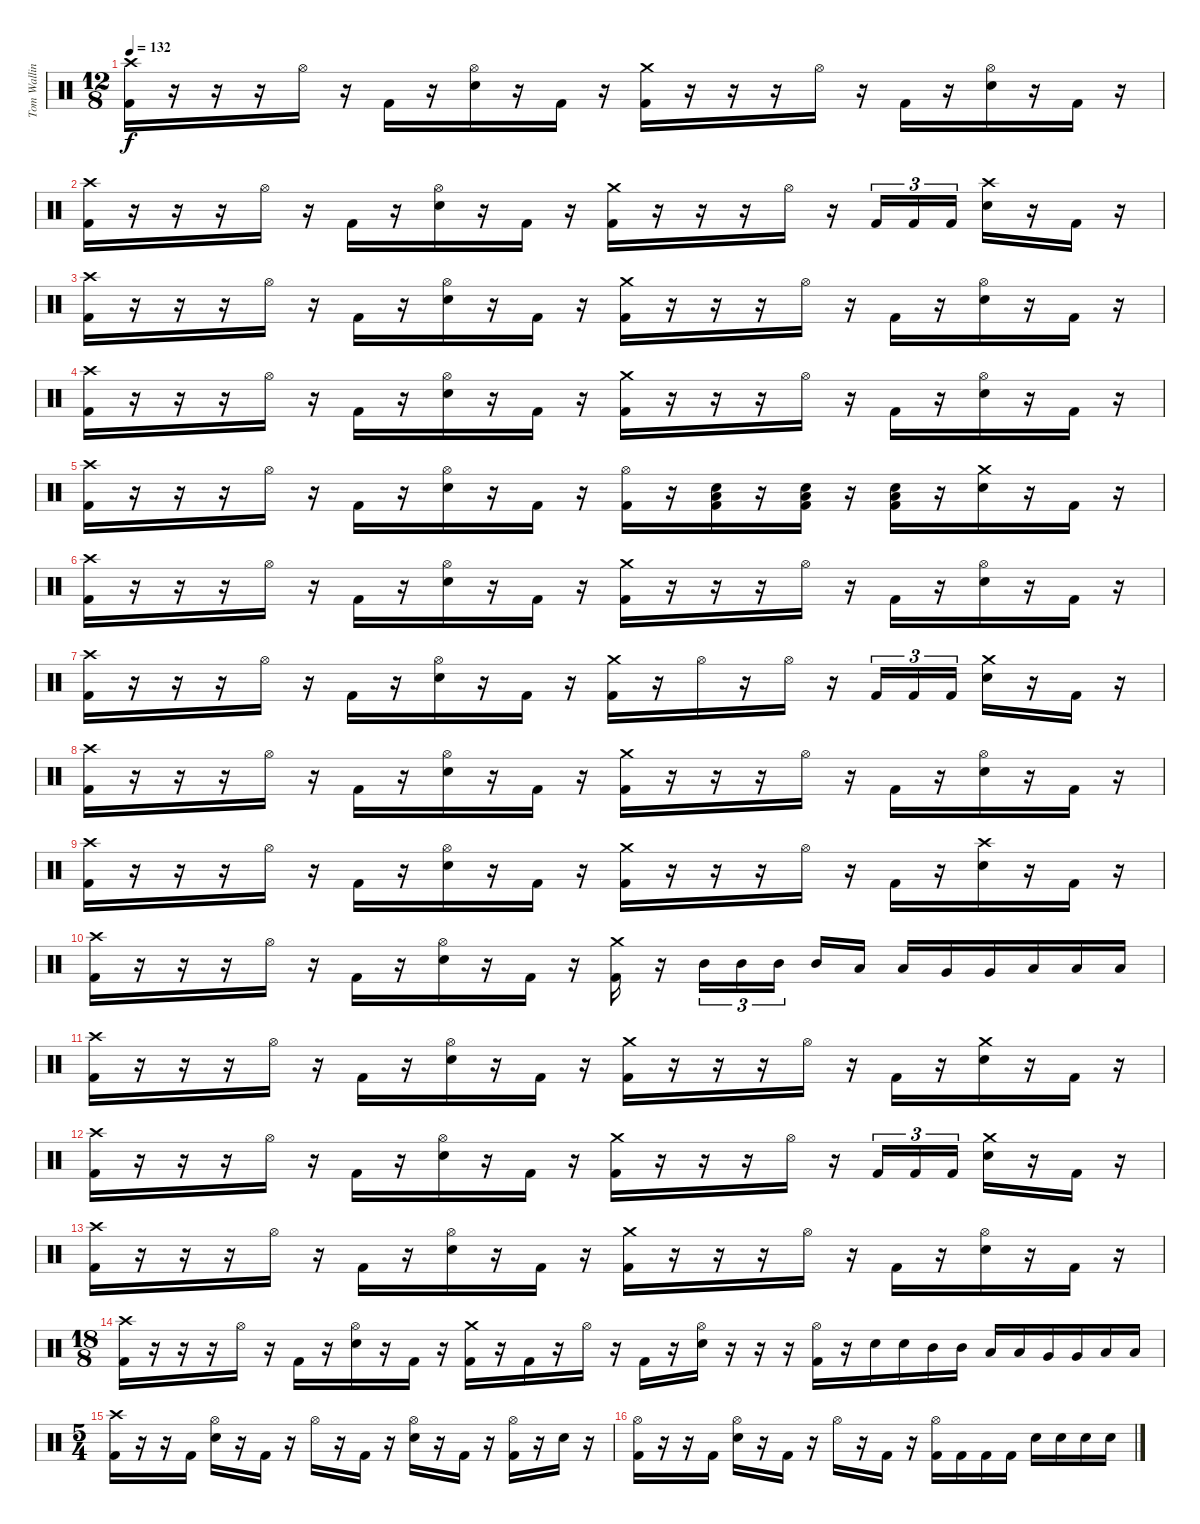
\track ("Tom Walling [Drums]" "Tom Wallin") {instrument percussion}
\staff {score}
\articulation defaults
\ts (12 8)
\tempo 132
\clef neutral
\ks c
("Crash high (hit)" "Kick (hit) 2").16{dy f} r.16 r.16 r.16 "Hi-Hat (open)".16 r.16 "Kick (hit) 2".16 r.16 ("Hi-Hat (open)" "Electric Snare (hit)").16 r.16 "Kick (hit) 2".16 r.16 ("Crash medium (hit)" "Kick (hit) 2").16 r.16 r.16 r.16 "Hi-Hat (open)".16 r.16 "Kick (hit) 2".16 r.16 ("Hi-Hat (open)" "Electric Snare (hit)").16 r.16 "Kick (hit) 2".16 r.16 |
("Crash high (hit)" "Kick (hit) 2").16 r.16 r.16 r.16 "Hi-Hat (open)".16 r.16 "Kick (hit) 2".16 r.16 ("Hi-Hat (open)" "Electric Snare (hit)").16 r.16 "Kick (hit) 2".16 r.16 ("Crash medium (hit)" "Kick (hit) 2").16 r.16 r.16 r.16 "Hi-Hat (open)".16 r.16 "Kick (hit) 2".16{tu (3 2)} "Kick (hit) 2".16{tu (3 2)} "Kick (hit) 2".16{tu (3 2)} ("Crash high (hit)" "Electric Snare (hit)").16 r.16 "Kick (hit) 2".16 r.16 |
("Crash high (hit)" "Kick (hit) 2").16 r.16 r.16 r.16 "Hi-Hat (open)".16 r.16 "Kick (hit) 2".16 r.16 ("Hi-Hat (open)" "Electric Snare (hit)").16 r.16 "Kick (hit) 2".16 r.16 ("Crash medium (hit)" "Kick (hit) 2").16 r.16 r.16 r.16 "Hi-Hat (open)".16 r.16 "Kick (hit) 2".16 r.16 ("Hi-Hat (open)" "Electric Snare (hit)").16 r.16 "Kick (hit) 2".16 r.16 |
("Crash high (hit)" "Kick (hit) 2").16 r.16 r.16 r.16 "Hi-Hat (open)".16 r.16 "Kick (hit) 2".16 r.16 ("Hi-Hat (open)" "Electric Snare (hit)").16 r.16 "Kick (hit) 2".16 r.16 ("Crash medium (hit)" "Kick (hit) 2").16 r.16 r.16 r.16 "Hi-Hat (open)".16 r.16 "Kick (hit) 2".16 r.16 ("Hi-Hat (open)" "Electric Snare (hit)").16 r.16 "Kick (hit) 2".16 r.16 |
("Crash high (hit)" "Kick (hit) 2").16 r.16 r.16 r.16 "Hi-Hat (open)".16 r.16 "Kick (hit) 2".16 r.16 ("Hi-Hat (open)" "Electric Snare (hit)").16 r.16 "Kick (hit) 2".16 r.16 ("Hi-Hat (open)" "Kick (hit) 2").16 r.16 ("Electric Snare (hit)" "Low Tom (hit)" "Kick (hit) 2").16 r.16 ("Electric Snare (hit)" "Low Tom (hit)" "Kick (hit) 2").16 r.16 ("Electric Snare (hit)" "Low Tom (hit)" "Kick (hit) 2").16 r.16 ("Crash medium (hit)" "Electric Snare (hit)").16 r.16 "Kick (hit) 2".16 r.16 |
("Crash high (hit)" "Kick (hit) 2").16 r.16 r.16 r.16 "Hi-Hat (open)".16 r.16 "Kick (hit) 2".16 r.16 ("Hi-Hat (open)" "Electric Snare (hit)").16 r.16 "Kick (hit) 2".16 r.16 ("Crash medium (hit)" "Kick (hit) 2").16 r.16 r.16 r.16 "Hi-Hat (open)".16 r.16 "Kick (hit) 2".16 r.16 ("Hi-Hat (open)" "Electric Snare (hit)").16 r.16 "Kick (hit) 2".16 r.16 |
("Crash high (hit)" "Kick (hit) 2").16 r.16 r.16 r.16 "Hi-Hat (open)".16 r.16 "Kick (hit) 2".16 r.16 ("Hi-Hat (open)" "Electric Snare (hit)").16 r.16 "Kick (hit) 2".16 r.16 ("Crash medium (hit)" "Kick (hit) 2").16 r.16 "Hi-Hat (open)".16 r.16 "Hi-Hat (open)".16 r.16 "Kick (hit) 2".16{tu (3 2)} "Kick (hit) 2".16{tu (3 2)} "Kick (hit) 2".16{tu (3 2)} ("Crash medium (hit)" "Electric Snare (hit)").16 r.16 "Kick (hit) 2".16 r.16 |
("Crash high (hit)" "Kick (hit) 2").16 r.16 r.16 r.16 "Hi-Hat (open)".16 r.16 "Kick (hit) 2".16 r.16 ("Hi-Hat (open)" "Electric Snare (hit)").16 r.16 "Kick (hit) 2".16 r.16 ("Crash medium (hit)" "Kick (hit) 2").16 r.16 r.16 r.16 "Hi-Hat (open)".16 r.16 "Kick (hit) 2".16 r.16 ("Hi-Hat (open)" "Electric Snare (hit)").16 r.16 "Kick (hit) 2".16 r.16 |
("Crash high (hit)" "Kick (hit) 2").16 r.16 r.16 r.16 "Hi-Hat (open)".16 r.16 "Kick (hit) 2".16 r.16 ("Hi-Hat (open)" "Electric Snare (hit)").16 r.16 "Kick (hit) 2".16 r.16 ("Crash medium (hit)" "Kick (hit) 2").16 r.16 r.16 r.16 "Hi-Hat (open)".16 r.16 "Kick (hit) 2".16 r.16 ("Crash high (hit)" "Electric Snare (hit)").16 r.16 "Kick (hit) 2".16 r.16 |
("Crash high (hit)" "Kick (hit) 2").16 r.16 r.16 r.16 "Hi-Hat (open)".16 r.16 "Kick (hit) 2".16 r.16 ("Hi-Hat (open)" "Electric Snare (hit)").16 r.16 "Kick (hit) 2".16 r.16 ("Crash medium (hit)" "Kick (hit) 2").16 r.16 "Mid Tom (hit)".16{tu (3 2)} "Mid Tom (hit)".16{tu (3 2)} "Mid Tom (hit)".16{tu (3 2)} "Mid Tom (hit)".16 "Low Tom (hit)".16 "Low Tom (hit)".16 "Very Low Tom (hit)".16 "Very Low Tom (hit)".16 "Low Floor Tom (hit)".16 "Low Floor Tom (hit)".16 "Low Floor Tom (hit)".16 |
("Crash high (hit)" "Kick (hit) 2").16 r.16 r.16 r.16 "Hi-Hat (open)".16 r.16 "Kick (hit) 2".16 r.16 ("Hi-Hat (open)" "Electric Snare (hit)").16 r.16 "Kick (hit) 2".16 r.16 ("Crash medium (hit)" "Kick (hit) 2").16 r.16 r.16 r.16 "Hi-Hat (open)".16 r.16 "Kick (hit) 2".16 r.16 ("Crash medium (hit)" "Electric Snare (hit)").16 r.16 "Kick (hit) 2".16 r.16 |
("Crash high (hit)" "Kick (hit) 2").16 r.16 r.16 r.16 "Hi-Hat (open)".16 r.16 "Kick (hit) 2".16 r.16 ("Hi-Hat (open)" "Electric Snare (hit)").16 r.16 "Kick (hit) 2".16 r.16 ("Crash medium (hit)" "Kick (hit) 2").16 r.16 r.16 r.16 "Hi-Hat (open)".16 r.16 "Kick (hit) 2".16{tu (3 2)} "Kick (hit) 2".16{tu (3 2)} "Kick (hit) 2".16{tu (3 2)} ("Crash medium (hit)" "Electric Snare (hit)").16 r.16 "Kick (hit) 2".16 r.16 |
("Crash high (hit)" "Kick (hit) 2").16 r.16 r.16 r.16 "Hi-Hat (open)".16 r.16 "Kick (hit) 2".16 r.16 ("Hi-Hat (open)" "Electric Snare (hit)").16 r.16 "Kick (hit) 2".16 r.16 ("Crash medium (hit)" "Kick (hit) 2").16 r.16 r.16 r.16 "Hi-Hat (open)".16 r.16 "Kick (hit) 2".16 r.16 ("Hi-Hat (open)" "Electric Snare (hit)").16 r.16 "Kick (hit) 2".16 r.16 |
\ts (18 8)
("Crash high (hit)" "Kick (hit) 2").16 r.16 r.16 r.16 "Hi-Hat (open)".16 r.16 "Kick (hit) 2".16 r.16 ("Hi-Hat (open)" "Electric Snare (hit)").16 r.16 "Kick (hit) 2".16 r.16 ("Crash medium (hit)" "Kick (hit) 2").16 r.16 "Kick (hit) 2".16 r.16 "Hi-Hat (open)".16 r.16 "Kick (hit) 2".16 r.16 ("Hi-Hat (open)" "Electric Snare (hit)").16 r.16 r.16 r.16 ("Hi-Hat (open)" "Kick (hit) 2").16 r.16 "Electric Snare (hit)".16 "Electric Snare (hit)".16 "Mid Tom (hit)".16 "Mid Tom (hit)".16 "Low Tom (hit)".16 "Low Tom (hit)".16 "Very Low Tom (hit)".16 "Very Low Tom (hit)".16 "Low Floor Tom (hit)".16 "Low Floor Tom (hit)".16 |
\ts (5 4)
("Crash high (hit)" "Kick (hit) 2").16 r.16 r.16 "Kick (hit) 2".16 ("Hi-Hat (open)" "Electric Snare (hit)").16 r.16 "Kick (hit) 2".16 r.16 "Hi-Hat (open)".16 r.16 "Kick (hit) 2".16 r.16 ("Hi-Hat (open)" "Electric Snare (hit)").16 r.16 "Kick (hit) 2".16 r.16 ("Hi-Hat (open)" "Kick (hit) 2").16 r.16 "Electric Snare (hit)".16 r.16 |
("Hi-Hat (open)" "Kick (hit) 2").16 r.16 r.16 "Kick (hit) 2".16 ("Hi-Hat (open)" "Electric Snare (hit)").16 r.16 "Kick (hit) 2".16 r.16 "Hi-Hat (open)".16 r.16 "Kick (hit) 2".16 r.16 ("Hi-Hat (open)" "Kick (hit) 2").16 "Kick (hit) 2".16 "Kick (hit) 2".16 "Kick (hit) 2".16 "Electric Snare (hit)".16 "Electric Snare (hit)".16 "Electric Snare (hit)".16 "Electric Snare (hit)".16
